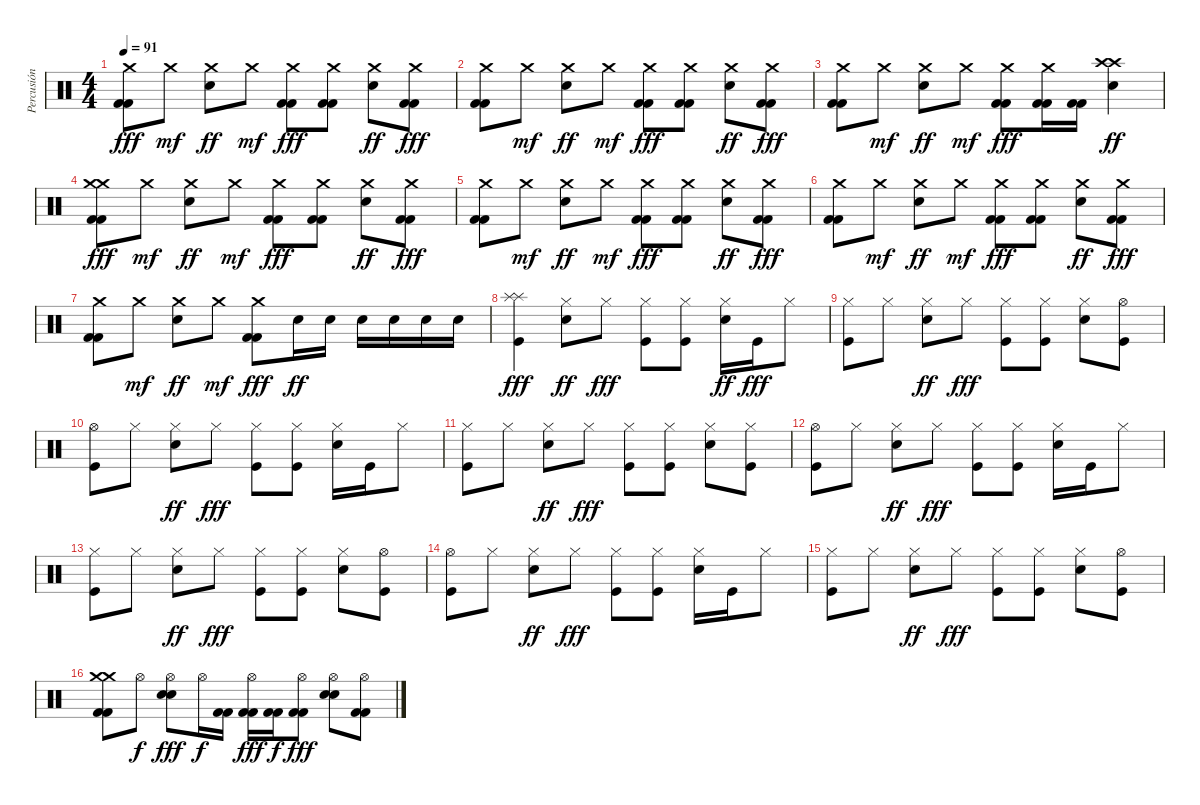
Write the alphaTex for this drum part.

\track ("Percusión" "Percusión") {instrument percussion}
\staff {score}
\articulation defaults
\ts (4 4)
\tempo 91
\clef neutral
\ks c
("Crash medium (hit)" "Kick (hit) 2" "Kick (hit) 2").8{dy fff} "Crash medium (hit)".8{dy mf} ("Crash medium (hit)" "Electric Snare (hit)").8{dy ff} "Crash medium (hit)".8{dy mf} ("Crash medium (hit)" "Kick (hit) 2" "Kick (hit) 2").8{dy fff} ("Crash medium (hit)" "Kick (hit) 2" "Kick (hit) 2").8 ("Crash medium (hit)" "Electric Snare (hit)").8{dy ff} ("Crash medium (hit)" "Kick (hit) 2" "Kick (hit) 2").8{dy fff} |
("Crash medium (hit)" "Kick (hit) 2" "Kick (hit) 2").8 "Crash medium (hit)".8{dy mf} ("Crash medium (hit)" "Electric Snare (hit)").8{dy ff} "Crash medium (hit)".8{dy mf} ("Crash medium (hit)" "Kick (hit) 2" "Kick (hit) 2").8{dy fff} ("Crash medium (hit)" "Kick (hit) 2" "Kick (hit) 2").8 ("Crash medium (hit)" "Electric Snare (hit)").8{dy ff} ("Crash medium (hit)" "Kick (hit) 2" "Kick (hit) 2").8{dy fff} |
("Crash medium (hit)" "Kick (hit) 2" "Kick (hit) 2").8 "Crash medium (hit)".8{dy mf} ("Crash medium (hit)" "Electric Snare (hit)").8{dy ff} "Crash medium (hit)".8{dy mf} ("Crash medium (hit)" "Kick (hit) 2" "Kick (hit) 2").8{dy fff} ("Crash medium (hit)" "Kick (hit) 2" "Kick (hit) 2").16 ("Kick (hit) 2" "Kick (hit) 2").16 ("Crash high (hit)" "Crash high (hit)" "Electric Snare (hit)").4{dy ff} |
("Crash medium (hit)" "Crash medium (hit)" "Kick (hit) 2" "Kick (hit) 2").8{dy fff} "Crash medium (hit)".8{dy mf} ("Crash medium (hit)" "Electric Snare (hit)").8{dy ff} "Crash medium (hit)".8{dy mf} ("Crash medium (hit)" "Kick (hit) 2" "Kick (hit) 2").8{dy fff} ("Crash medium (hit)" "Kick (hit) 2" "Kick (hit) 2").8 ("Crash medium (hit)" "Electric Snare (hit)").8{dy ff} ("Crash medium (hit)" "Kick (hit) 2" "Kick (hit) 2").8{dy fff} |
("Crash medium (hit)" "Kick (hit) 2" "Kick (hit) 2").8 "Crash medium (hit)".8{dy mf} ("Crash medium (hit)" "Electric Snare (hit)").8{dy ff} "Crash medium (hit)".8{dy mf} ("Crash medium (hit)" "Kick (hit) 2" "Kick (hit) 2").8{dy fff} ("Crash medium (hit)" "Kick (hit) 2" "Kick (hit) 2").8 ("Crash medium (hit)" "Electric Snare (hit)").8{dy ff} ("Crash medium (hit)" "Kick (hit) 2" "Kick (hit) 2").8{dy fff} |
("Crash medium (hit)" "Kick (hit) 2" "Kick (hit) 2").8 "Crash medium (hit)".8{dy mf} ("Crash medium (hit)" "Electric Snare (hit)").8{dy ff} "Crash medium (hit)".8{dy mf} ("Crash medium (hit)" "Kick (hit) 2" "Kick (hit) 2").8{dy fff} ("Crash medium (hit)" "Kick (hit) 2" "Kick (hit) 2").8 ("Crash medium (hit)" "Electric Snare (hit)").8{dy ff} ("Crash medium (hit)" "Kick (hit) 2" "Kick (hit) 2").8{dy fff} |
("Crash medium (hit)" "Kick (hit) 2" "Kick (hit) 2").8 "Crash medium (hit)".8{dy mf} ("Crash medium (hit)" "Electric Snare (hit)").8{dy ff} "Crash medium (hit)".8{dy mf} ("Crash medium (hit)" "Kick (hit) 2" "Kick (hit) 2").8{dy fff} "Electric Snare (hit)".16{dy ff} "Electric Snare (hit)".16 "Electric Snare (hit)".16 "Electric Snare (hit)".16 "Electric Snare (hit)".16 "Electric Snare (hit)".16 |
("Splash (hit)" "Splash (hit)" "Kick (hit)").4{dy fff} ("Hi-Hat (closed)" "Electric Snare (hit)").8{dy ff} "Hi-Hat (closed)".8{dy fff} ("Hi-Hat (closed)" "Kick (hit)").8 ("Hi-Hat (closed)" "Kick (hit)").8 ("Hi-Hat (closed)" "Electric Snare (hit)").16{dy ff} "Kick (hit)".16{dy fff} "Hi-Hat (closed)".8 |
("Hi-Hat (closed)" "Kick (hit)").8 "Hi-Hat (closed)".8 ("Hi-Hat (closed)" "Electric Snare (hit)").8{dy ff} "Hi-Hat (closed)".8{dy fff} ("Hi-Hat (closed)" "Kick (hit)").8 ("Hi-Hat (closed)" "Kick (hit)").8 ("Hi-Hat (closed)" "Electric Snare (hit)").8 ("Hi-Hat (open)" "Kick (hit)").8 |
("Hi-Hat (open)" "Kick (hit)").8 "Hi-Hat (closed)".8 ("Hi-Hat (closed)" "Electric Snare (hit)").8{dy ff} "Hi-Hat (closed)".8{dy fff} ("Hi-Hat (closed)" "Kick (hit)").8 ("Hi-Hat (closed)" "Kick (hit)").8 ("Hi-Hat (closed)" "Electric Snare (hit)").16 "Kick (hit)".16 "Hi-Hat (closed)".8 |
("Hi-Hat (closed)" "Kick (hit)").8 "Hi-Hat (closed)".8 ("Hi-Hat (closed)" "Electric Snare (hit)").8{dy ff} "Hi-Hat (closed)".8{dy fff} ("Hi-Hat (closed)" "Kick (hit)").8 ("Hi-Hat (closed)" "Kick (hit)").8 ("Hi-Hat (closed)" "Electric Snare (hit)").8 ("Hi-Hat (closed)" "Kick (hit)").8 |
("Hi-Hat (open)" "Kick (hit)").8 "Hi-Hat (closed)".8 ("Hi-Hat (closed)" "Electric Snare (hit)").8{dy ff} "Hi-Hat (closed)".8{dy fff} ("Hi-Hat (closed)" "Kick (hit)").8 ("Hi-Hat (closed)" "Kick (hit)").8 ("Hi-Hat (closed)" "Electric Snare (hit)").16 "Kick (hit)".16 "Hi-Hat (closed)".8 |
("Hi-Hat (closed)" "Kick (hit)").8 "Hi-Hat (closed)".8 ("Hi-Hat (closed)" "Electric Snare (hit)").8{dy ff} "Hi-Hat (closed)".8{dy fff} ("Hi-Hat (closed)" "Kick (hit)").8 ("Hi-Hat (closed)" "Kick (hit)").8 ("Hi-Hat (closed)" "Electric Snare (hit)").8 ("Hi-Hat (open)" "Kick (hit)").8 |
("Hi-Hat (open)" "Kick (hit)").8 "Hi-Hat (closed)".8 ("Hi-Hat (closed)" "Electric Snare (hit)").8{dy ff} "Hi-Hat (closed)".8{dy fff} ("Hi-Hat (closed)" "Kick (hit)").8 ("Hi-Hat (closed)" "Kick (hit)").8 ("Hi-Hat (closed)" "Electric Snare (hit)").16 "Kick (hit)".16 "Hi-Hat (closed)".8 |
("Hi-Hat (closed)" "Kick (hit)").8 "Hi-Hat (closed)".8 ("Hi-Hat (closed)" "Electric Snare (hit)").8{dy ff} "Hi-Hat (closed)".8{dy fff} ("Hi-Hat (closed)" "Kick (hit)").8 ("Hi-Hat (closed)" "Kick (hit)").8 ("Hi-Hat (closed)" "Electric Snare (hit)").8 ("Hi-Hat (open)" "Kick (hit)").8 |
("Crash medium (hit)" "Crash medium (hit)" "Kick (hit) 2" "Kick (hit) 2").8 "Hi-Hat (open)".8{dy f} ("Hi-Hat (open)" "Electric Snare (hit)" "Electric Snare (hit)").8{dy fff} "Hi-Hat (open)".16{dy f} ("Kick (hit) 2" "Kick (hit) 2").16 ("Hi-Hat (open)" "Kick (hit) 2" "Kick (hit) 2").16{dy fff} ("Kick (hit) 2" "Kick (hit) 2").16{dy f} ("Hi-Hat (open)" "Kick (hit) 2" "Kick (hit) 2").8{dy fff} ("Hi-Hat (open)" "Electric Snare (hit)" "Electric Snare (hit)").8 ("Hi-Hat (open)" "Kick (hit) 2" "Kick (hit) 2").8
